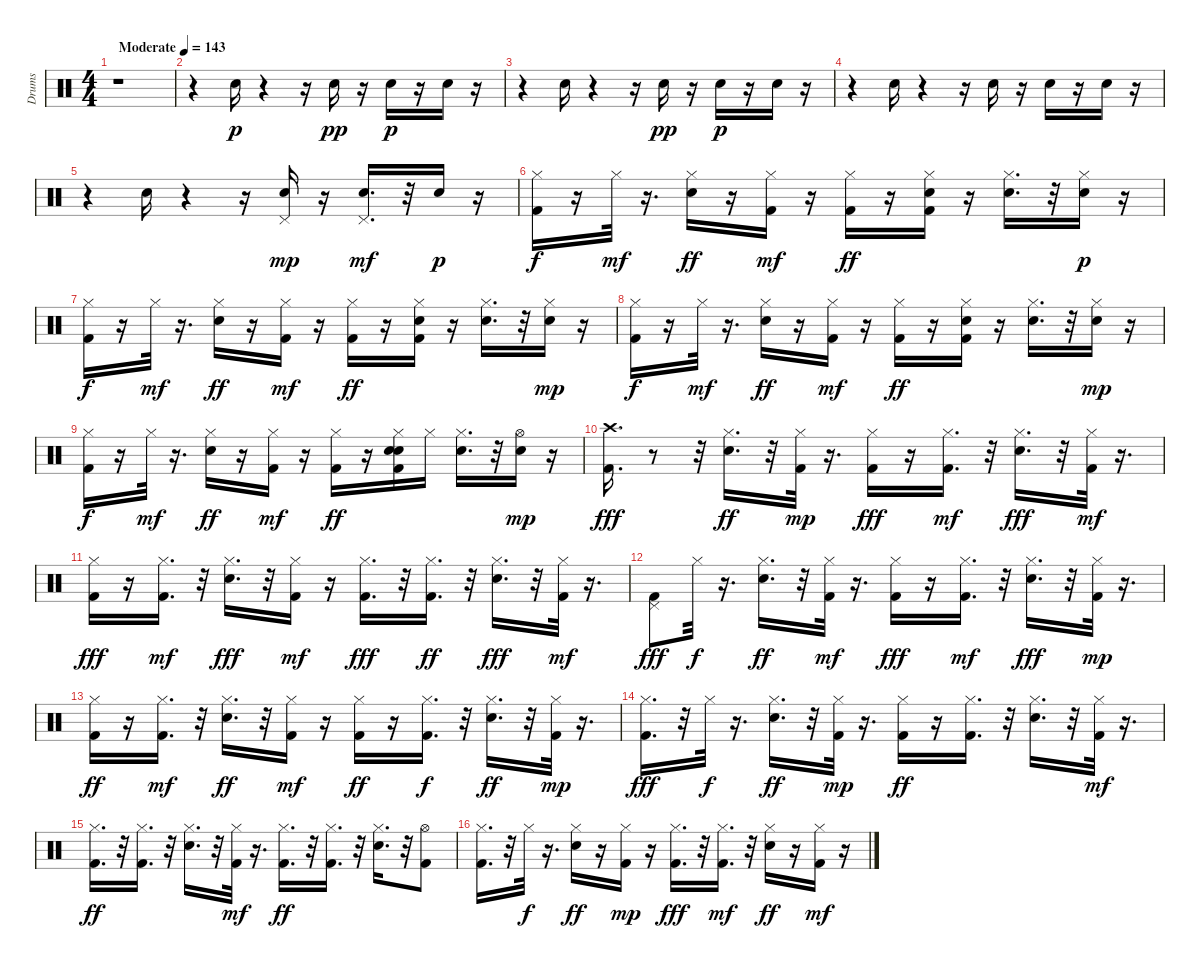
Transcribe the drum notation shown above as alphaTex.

\track ("Drums               " "Drums     ") {instrument percussion}
\staff {score}
\articulation defaults
\ts (4 4)
\tempo (143 "Moderate")
\clef neutral
\ks c
r.1{dy p} |
r.4 "Snare (hit) 2".16 r.4 r.16 "Hand Clap (hit)".16{dy pp} r.16 "Snare (hit) 2".16{dy p} r.16 "Hand Clap (hit)".16 r.16 |
r.4 "Snare (hit) 2".16 r.4 r.16 "Hand Clap (hit)".16{dy pp} r.16 "Snare (hit) 2".16{dy p} r.16 "Hand Clap (hit)".16 r.16 |
r.4 "Snare (hit) 2".16 r.4 r.16 "Hand Clap (hit)".16 r.16 "Snare (hit) 2".16 r.16 "Hand Clap (hit)".16 r.16 |
r.4 "Snare (hit) 2".16 r.4 r.16 ("Hand Clap (hit)" "Pedal Hi-Hat (hit)").16{dy mp} r.16 ("Snare (hit) 2" "Pedal Hi-Hat (hit)").16{d dy mf} r.32 "Hand Clap (hit)".16{dy p} r.16 |
("Kick (hit) 2" "Hi-Hat (closed)").16{dy f} r.16 "Hi-Hat (closed)".32{dy mf} r.16{d} ("Snare (hit) 2" "Hi-Hat (closed)").16{dy ff} r.16 ("Kick (hit) 2" "Hi-Hat (closed)").16{dy mf} r.16 ("Kick (hit) 2" "Hi-Hat (closed)").16{dy ff} r.16 ("Kick (hit) 2" "Hand Clap (hit)" "Hi-Hat (closed)").16 r.16 ("Snare (hit) 2" "Hi-Hat (closed)").16{d} r.32 ("Hand Clap (hit)" "Hi-Hat (closed)").16{dy p} r.16 |
("Kick (hit) 2" "Hi-Hat (closed)").16{dy f} r.16 "Hi-Hat (closed)".32{dy mf} r.16{d} ("Snare (hit) 2" "Hi-Hat (closed)").16{dy ff} r.16 ("Kick (hit) 2" "Hi-Hat (closed)").16{dy mf} r.16 ("Kick (hit) 2" "Hi-Hat (closed)").16{dy ff} r.16 ("Kick (hit) 2" "Hand Clap (hit)" "Hi-Hat (closed)").16 r.16 ("Snare (hit) 2" "Hi-Hat (closed)").16{d} r.32 ("Hand Clap (hit)" "Hi-Hat (closed)").16{dy mp} r.16 |
("Kick (hit) 2" "Hi-Hat (closed)").16{dy f} r.16 "Hi-Hat (closed)".32{dy mf} r.16{d} ("Snare (hit) 2" "Hi-Hat (closed)").16{dy ff} r.16 ("Kick (hit) 2" "Hi-Hat (closed)").16{dy mf} r.16 ("Kick (hit) 2" "Hi-Hat (closed)").16{dy ff} r.16 ("Kick (hit) 2" "Hand Clap (hit)" "Hi-Hat (closed)").16 r.16 ("Snare (hit) 2" "Hi-Hat (closed)").16{d} r.32 ("Hand Clap (hit)" "Hi-Hat (closed)").16{dy mp} r.16 |
("Kick (hit) 2" "Hi-Hat (closed)").16{dy f} r.16 "Hi-Hat (closed)".32{dy mf} r.16{d} ("Snare (hit) 2" "Hi-Hat (closed)").16{dy ff} r.16 ("Kick (hit) 2" "Hi-Hat (closed)").16{dy mf} r.16 ("Kick (hit) 2" "Hi-Hat (closed)").16{dy ff} r.16 ("Kick (hit) 2" "Snare (hit) 2" "Hand Clap (hit)" "Hi-Hat (closed)").16 "Hi-Hat (closed)".16 ("Snare (hit) 2" "Hi-Hat (closed)").16{d} r.32 ("Hand Clap (hit)" "Hi-Hat (open)").16{dy mp} r.16 |
("Kick (hit) 2" "Crash high (hit)").16{d dy fff} r.8 r.32 ("Snare (hit) 2" "Hi-Hat (closed)").16{d dy ff} r.32 ("Kick (hit) 2" "Hi-Hat (closed)").32{dy mp} r.16{d} ("Kick (hit) 2" "Hi-Hat (closed)").16{dy fff} r.16 ("Kick (hit) 2" "Hi-Hat (closed)").16{d dy mf} r.32 ("Snare (hit) 2" "Hi-Hat (closed)").16{d dy fff} r.32 ("Kick (hit) 2" "Hi-Hat (closed)").32{dy mf} r.16{d} |
("Kick (hit) 2" "Hi-Hat (closed)").16{dy fff} r.16 ("Kick (hit) 2" "Hi-Hat (closed)").16{d dy mf} r.32 ("Snare (hit) 2" "Hi-Hat (closed)").16{d dy fff} r.32 ("Kick (hit) 2" "Hi-Hat (closed)").16{dy mf} r.16 ("Kick (hit) 2" "Hi-Hat (closed)").16{d dy fff} r.32 ("Kick (hit) 2" "Hi-Hat (closed)").16{d dy ff} r.32 ("Snare (hit) 2" "Hi-Hat (closed)").16{d dy fff} r.32 ("Kick (hit) 2" "Hi-Hat (closed)").32{dy mf} r.16{d} |
("Kick (hit) 2" "Pedal Hi-Hat (hit)").8{dy fff} "Hi-Hat (closed)".32{dy f} r.16{d} ("Snare (hit) 2" "Hi-Hat (closed)").16{d dy ff} r.32 ("Kick (hit) 2" "Hi-Hat (closed)").32{dy mf} r.16{d} ("Kick (hit) 2" "Hi-Hat (closed)").16{dy fff} r.16 ("Kick (hit) 2" "Hi-Hat (closed)").16{d dy mf} r.32 ("Snare (hit) 2" "Hi-Hat (closed)").16{d dy fff} r.32 ("Kick (hit) 2" "Hi-Hat (closed)").32{dy mp} r.16{d} |
("Kick (hit) 2" "Hi-Hat (closed)").16{dy ff} r.16 ("Kick (hit) 2" "Hi-Hat (closed)").16{d dy mf} r.32 ("Snare (hit) 2" "Hi-Hat (closed)").16{d dy ff} r.32 ("Kick (hit) 2" "Hi-Hat (closed)").16{dy mf} r.16 ("Kick (hit) 2" "Hi-Hat (closed)").16{dy ff} r.16 ("Kick (hit) 2" "Hi-Hat (closed)").16{d dy f} r.32 ("Snare (hit) 2" "Hi-Hat (closed)").16{d dy ff} r.32 ("Kick (hit) 2" "Hi-Hat (closed)").32{dy mp} r.16{d} |
("Kick (hit) 2" "Hi-Hat (closed)").16{d dy fff} r.32 "Hi-Hat (closed)".32{dy f} r.16{d} ("Snare (hit) 2" "Hi-Hat (closed)").16{d dy ff} r.32 ("Kick (hit) 2" "Hi-Hat (closed)").32{dy mp} r.16{d} ("Kick (hit) 2" "Hi-Hat (closed)").16{dy ff} r.16 ("Kick (hit) 2" "Hi-Hat (closed)").16{d} r.32 ("Snare (hit) 2" "Hi-Hat (closed)").16{d} r.32 ("Kick (hit) 2" "Hi-Hat (closed)").32{dy mf} r.16{d} |
("Kick (hit) 2" "Hi-Hat (closed)").16{d dy ff} r.32 ("Kick (hit) 2" "Hi-Hat (closed)").16{d} r.32 ("Snare (hit) 2" "Hi-Hat (closed)").16{d} r.32 ("Kick (hit) 2" "Hi-Hat (closed)").32{dy mf} r.16{d} ("Kick (hit) 2" "Hi-Hat (closed)").16{d dy ff} r.32 ("Kick (hit) 2" "Hi-Hat (closed)").16{d} r.32 ("Snare (hit) 2" "Hi-Hat (closed)").16{d} r.32 ("Kick (hit) 2" "Hi-Hat (open)").8 |
("Kick (hit) 2" "Hi-Hat (closed)").16{d} r.32 "Hi-Hat (closed)".32{dy f} r.16{d} ("Snare (hit) 2" "Hi-Hat (closed)").16{dy ff} r.16 ("Kick (hit) 2" "Hi-Hat (closed)").16{dy mp} r.16 ("Kick (hit) 2" "Hi-Hat (closed)").16{d dy fff} r.32 ("Kick (hit) 2" "Hi-Hat (closed)").16{d dy mf} r.32 ("Snare (hit) 2" "Hi-Hat (closed)").16{dy ff} r.16 ("Kick (hit) 2" "Hi-Hat (closed)").16{dy mf} r.16
